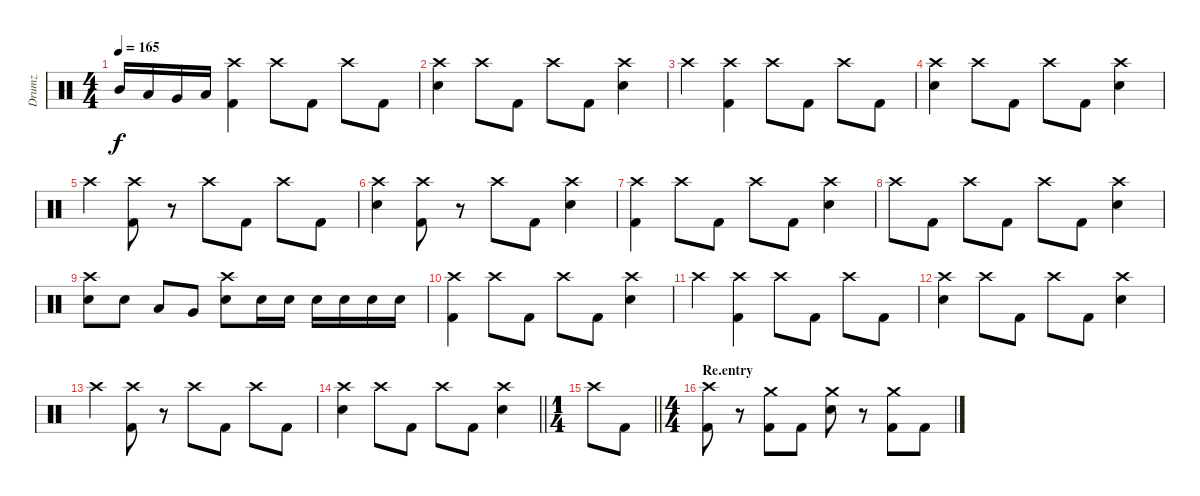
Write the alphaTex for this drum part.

\track ("Drumz" "Drumz") {instrument percussion}
\staff {score}
\articulation defaults
\ts (4 4)
\tempo 165
\clef neutral
\ks c "Mid Tom (hit)".16{dy f} "Low Tom (hit)".16 "Very Low Tom (hit)".16 "Low Floor Tom (hit)".16
("Crash high (hit)" "Kick (hit) 2").4 "Crash high (hit)".8 "Kick (hit) 2".8 "Crash high (hit)".8 "Kick (hit) 2".8 |
("Crash high (hit)" "Snare (hit) 2").4 "Crash high (hit)".8 "Kick (hit) 2".8 "Crash high (hit)".8 "Kick (hit) 2".8 ("Snare (hit) 2" "Crash high (hit)").4 |
"Crash high (hit)".4 ("Crash high (hit)" "Kick (hit) 2").4 "Crash high (hit)".8 "Kick (hit) 2".8 "Crash high (hit)".8 "Kick (hit) 2".8 |
("Crash high (hit)" "Snare (hit) 2").4 "Crash high (hit)".8 "Kick (hit) 2".8 "Crash high (hit)".8 "Kick (hit) 2".8 ("Snare (hit) 2" "Crash high (hit)").4 |
"Crash high (hit)".4 ("Crash high (hit)" "Kick (hit) 2").8 r.8 "Crash high (hit)".8 "Kick (hit) 2".8 "Crash high (hit)".8 "Kick (hit) 2".8 |
("Crash high (hit)" "Snare (hit) 2").4 ("Crash high (hit)" "Kick (hit) 2").8 r.8 "Crash high (hit)".8 "Kick (hit) 2".8 ("Crash high (hit)" "Snare (hit) 2").4 |
("Kick (hit) 2" "Crash high (hit)").4 "Crash high (hit)".8 "Kick (hit) 2".8 "Crash high (hit)".8 "Kick (hit) 2".8 ("Snare (hit) 2" "Crash high (hit)").4 |
"Crash high (hit)".8 "Kick (hit) 2".8 "Crash high (hit)".8 "Kick (hit) 2".8 "Crash high (hit)".8 "Kick (hit) 2".8 ("Snare (hit) 2" "Crash high (hit)").4 |
("Snare (hit) 2" "Crash high (hit)").8 "Snare (hit) 2".8 "Low Tom (hit)".8 "Very Low Tom (hit)".8 ("Crash high (hit)" "Snare (hit) 2").8 "Snare (hit) 2".16 "Snare (hit) 2".16 "Snare (hit) 2".16 "Snare (hit) 2".16 "Snare (hit) 2".16 "Snare (hit) 2".16 |
("Kick (hit) 2" "Crash high (hit)").4 "Crash high (hit)".8 "Kick (hit) 2".8 "Crash high (hit)".8 "Kick (hit) 2".8 ("Snare (hit) 2" "Crash high (hit)").4 |
"Crash high (hit)".4 ("Kick (hit) 2" "Crash high (hit)").4 "Crash high (hit)".8 "Kick (hit) 2".8 "Crash high (hit)".8 "Kick (hit) 2".8 |
("Snare (hit) 2" "Crash high (hit)").4 "Crash high (hit)".8 "Kick (hit) 2".8 "Crash high (hit)".8 "Kick (hit) 2".8 ("Snare (hit) 2" "Crash high (hit)").4 |
"Crash high (hit)".4 ("Crash high (hit)" "Kick (hit) 2").8 r.8 "Crash high (hit)".8 "Kick (hit) 2".8 "Crash high (hit)".8 "Kick (hit) 2".8 |
\barLineRight lightlight
("Crash high (hit)" "Snare (hit) 2").4 "Crash high (hit)".8 "Kick (hit) 2".8 "Crash high (hit)".8 "Kick (hit) 2".8 ("Snare (hit) 2" "Crash high (hit)").4 |
\ts (1 4)
\barLineRight lightlight "Crash high (hit)".8 "Kick (hit) 2".8
|
\ts (4 4)
\section ("" "Re.entry")
("Kick (hit) 2" "Crash high (hit)").8 r.8 ("Crash medium (hit)" "Kick (hit) 2").8 "Kick (hit) 2".8 ("Crash medium (hit)" "Electric Snare (hit)").8 r.8 ("Kick (hit) 2" "Crash medium (hit)").8 "Kick (hit) 2".8
